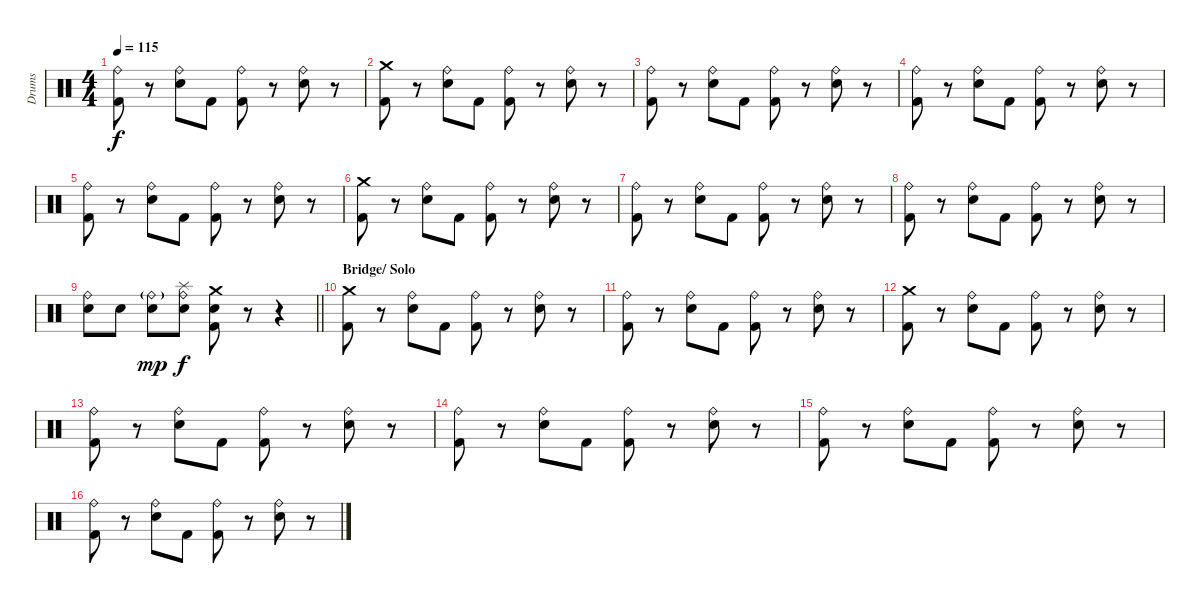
\track ("Drums" "Drums") {instrument percussion}
\staff {score}
\articulation defaults
\ts (4 4)
\tempo 115
\clef neutral
\ks c
("Ride (bell)" "Kick (hit) 2").8{dy f} r.8 ("Ride (bell)" "Electric Snare (hit)").8 "Kick (hit) 2".8 ("Ride (bell)" "Kick (hit) 2").8 r.8 ("Ride (bell)" "Electric Snare (hit)").8 r.8 |
("Crash medium (hit)" "Kick (hit) 2").8 r.8 ("Ride (bell)" "Electric Snare (hit)").8 "Kick (hit) 2".8 ("Ride (bell)" "Kick (hit) 2").8 r.8 ("Ride (bell)" "Electric Snare (hit)").8 r.8 |
("Ride (bell)" "Kick (hit) 2").8 r.8 ("Ride (bell)" "Electric Snare (hit)").8 "Kick (hit) 2".8 ("Ride (bell)" "Kick (hit) 2").8 r.8 ("Ride (bell)" "Electric Snare (hit)").8 r.8 |
("Ride (bell)" "Kick (hit) 2").8 r.8 ("Ride (bell)" "Electric Snare (hit)").8 "Kick (hit) 2".8 ("Ride (bell)" "Kick (hit) 2").8 r.8 ("Ride (bell)" "Electric Snare (hit)").8 r.8 |
("Ride (bell)" "Kick (hit) 2").8 r.8 ("Ride (bell)" "Electric Snare (hit)").8 "Kick (hit) 2".8 ("Ride (bell)" "Kick (hit) 2").8 r.8 ("Ride (bell)" "Electric Snare (hit)").8 r.8 |
("Crash medium (hit)" "Kick (hit) 2").8 r.8 ("Ride (bell)" "Electric Snare (hit)").8 "Kick (hit) 2".8 ("Ride (bell)" "Kick (hit) 2").8 r.8 ("Ride (bell)" "Electric Snare (hit)").8 r.8 |
("Ride (bell)" "Kick (hit) 2").8 r.8 ("Ride (bell)" "Electric Snare (hit)").8 "Kick (hit) 2".8 ("Ride (bell)" "Kick (hit) 2").8 r.8 ("Ride (bell)" "Electric Snare (hit)").8 r.8 |
("Ride (bell)" "Kick (hit) 2").8 r.8 ("Ride (bell)" "Electric Snare (hit)").8 "Kick (hit) 2".8 ("Ride (bell)" "Kick (hit) 2").8 r.8 ("Ride (bell)" "Electric Snare (hit)").8 r.8 |
\barLineRight lightlight
("Ride (bell)" "Electric Snare (hit)").8 "Electric Snare (hit)".8 ("Ride (bell)"{g} "Electric Snare (hit)").8{dy mp} ("Ride (bell)" "Electric Snare (hit)" "Splash (hit)").8{dy f} ("Crash medium (hit)" "Kick (hit) 2" "Electric Snare (hit)").8 r.8 r.4 |
\section ("" "Bridge/ Solo")
("Crash medium (hit)" "Kick (hit) 2").8 r.8 ("Ride (bell)" "Electric Snare (hit)").8 "Kick (hit) 2".8 ("Ride (bell)" "Kick (hit) 2").8 r.8 ("Ride (bell)" "Electric Snare (hit)").8 r.8 |
("Ride (bell)" "Kick (hit) 2").8 r.8 ("Ride (bell)" "Electric Snare (hit)").8 "Kick (hit) 2".8 ("Ride (bell)" "Kick (hit) 2").8 r.8 ("Ride (bell)" "Electric Snare (hit)").8 r.8 |
("Crash medium (hit)" "Kick (hit) 2").8 r.8 ("Ride (bell)" "Electric Snare (hit)").8 "Kick (hit) 2".8 ("Ride (bell)" "Kick (hit) 2").8 r.8 ("Ride (bell)" "Electric Snare (hit)").8 r.8 |
("Ride (bell)" "Kick (hit) 2").8 r.8 ("Ride (bell)" "Electric Snare (hit)").8 "Kick (hit) 2".8 ("Ride (bell)" "Kick (hit) 2").8 r.8 ("Ride (bell)" "Electric Snare (hit)").8 r.8 |
("Ride (bell)" "Kick (hit) 2").8 r.8 ("Ride (bell)" "Electric Snare (hit)").8 "Kick (hit) 2".8 ("Ride (bell)" "Kick (hit) 2").8 r.8 ("Ride (bell)" "Electric Snare (hit)").8 r.8 |
("Ride (bell)" "Kick (hit) 2").8 r.8 ("Ride (bell)" "Electric Snare (hit)").8 "Kick (hit) 2".8 ("Ride (bell)" "Kick (hit) 2").8 r.8 ("Ride (bell)" "Electric Snare (hit)").8 r.8 |
("Ride (bell)" "Kick (hit) 2").8 r.8 ("Ride (bell)" "Electric Snare (hit)").8 "Kick (hit) 2".8 ("Ride (bell)" "Kick (hit) 2").8 r.8 ("Ride (bell)" "Electric Snare (hit)").8 r.8
